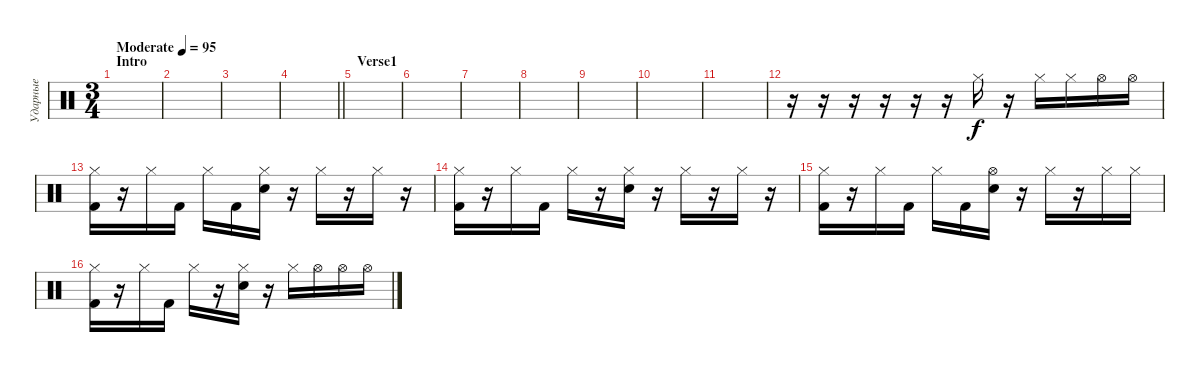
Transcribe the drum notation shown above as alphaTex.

\track ("Ударные" "Ударные") {instrument percussion}
\staff {score}
\articulation defaults
\ts (3 4)
\section ("" "Intro")
\tempo (95 "Moderate")
\clef neutral
\ks c
|
|
|
\barLineRight lightlight
|
\section ("" "Verse1")
|
|
|
|
|
|
|
r.16 r.16 r.16 r.16 r.16 r.16 "Hi-Hat (closed)".16 r.16 "Hi-Hat (closed)".16 "Hi-Hat (closed)".16 "Hi-Hat (open)".16 "Hi-Hat (open)".16 |
("Hi-Hat (closed)" "Kick (hit) 2").16 r.16 "Hi-Hat (closed)".16 "Kick (hit) 2".16 "Hi-Hat (closed)".16 "Kick (hit) 2".16 ("Hi-Hat (closed)" "Electric Snare (hit)").16 r.16 "Hi-Hat (closed)".16 r.16 "Hi-Hat (closed)".16 r.16 |
("Hi-Hat (closed)" "Kick (hit) 2").16 r.16 "Hi-Hat (closed)".16 "Kick (hit) 2".16 "Hi-Hat (closed)".16 r.16 ("Hi-Hat (closed)" "Electric Snare (hit)").16 r.16 "Hi-Hat (closed)".16 r.16 "Hi-Hat (closed)".16 r.16 |
("Hi-Hat (closed)" "Kick (hit) 2").16 r.16 "Hi-Hat (closed)".16 "Kick (hit) 2".16 "Hi-Hat (closed)".16 "Kick (hit) 2".16 ("Hi-Hat (open)" "Electric Snare (hit)").16 r.16 "Hi-Hat (closed)".16 r.16 "Hi-Hat (closed)".16 "Hi-Hat (closed)".16 |
("Hi-Hat (closed)" "Kick (hit) 2").16 r.16 "Hi-Hat (closed)".16 "Kick (hit) 2".16 "Hi-Hat (closed)".16 r.16 ("Hi-Hat (closed)" "Electric Snare (hit)").16 r.16 "Hi-Hat (closed)".16 "Hi-Hat (open)".16 "Hi-Hat (open)".16 "Hi-Hat (open)".16
